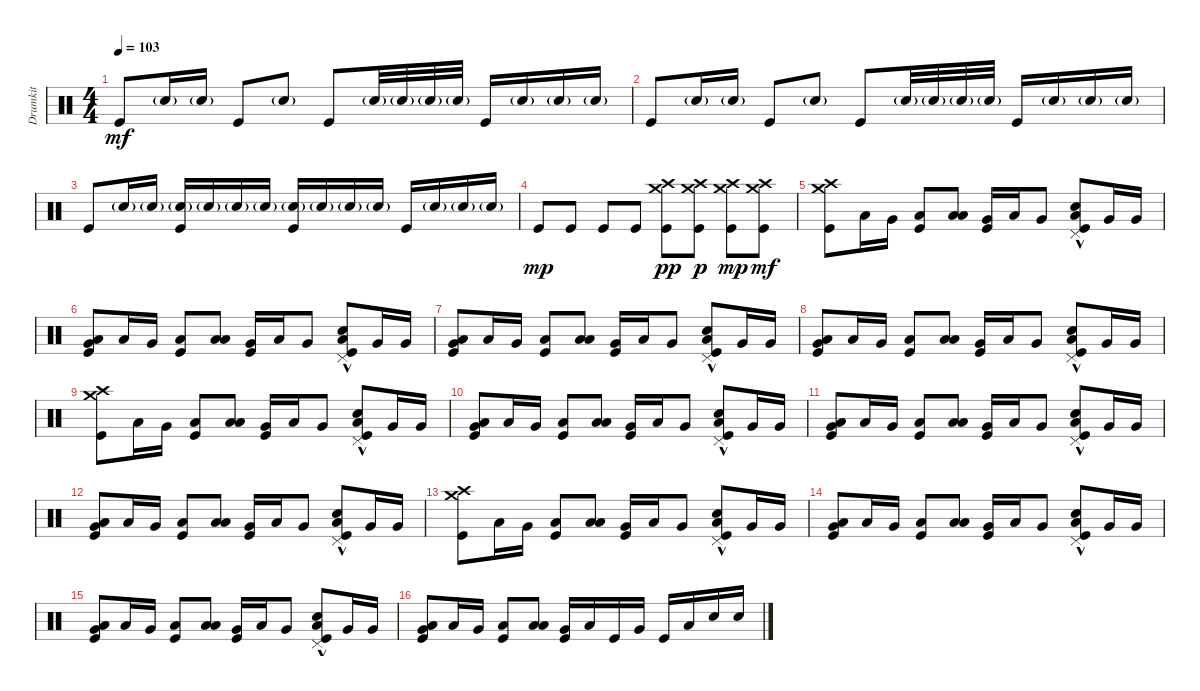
\track ("Drumkit" "Drumkit") {instrument percussion}
\staff {score}
\articulation defaults
\ts (4 4)
\tempo 103
\clef neutral
\ks c "Kick (hit)".8{dy mf} "Snare (hit) 2"{g}.16 "Snare (hit) 2"{g}.16 "Kick (hit)".8 "Snare (hit) 2"{g}.8 "Kick (hit)".8 "Snare (hit) 2"{g}.32 "Snare (hit) 2"{g}.32 "Snare (hit) 2"{g}.32 "Snare (hit) 2"{g}.32 "Kick (hit)".16 "Snare (hit) 2"{g}.16 "Snare (hit) 2"{g}.16 "Snare (hit) 2"{g}.16
|
"Kick (hit)".8 "Snare (hit) 2"{g}.16 "Snare (hit) 2"{g}.16 "Kick (hit)".8 "Snare (hit) 2"{g}.8 "Kick (hit)".8 "Snare (hit) 2"{g}.32 "Snare (hit) 2"{g}.32 "Snare (hit) 2"{g}.32 "Snare (hit) 2"{g}.32 "Kick (hit)".16 "Snare (hit) 2"{g}.16 "Snare (hit) 2"{g}.16 "Snare (hit) 2"{g}.16 |
"Kick (hit)".8 "Snare (hit) 2"{g}.16 "Snare (hit) 2"{g}.16 ("Kick (hit)" "Snare (hit) 2"{g}).16 "Snare (hit) 2"{g}.16 "Snare (hit) 2"{g}.16 "Snare (hit) 2"{g}.16 ("Kick (hit)" "Snare (hit) 2"{g}).16 "Snare (hit) 2"{g}.16 "Snare (hit) 2"{g}.16 "Snare (hit) 2"{g}.16 "Kick (hit)".16 "Snare (hit) 2"{g}.16 "Snare (hit) 2"{g}.16 "Snare (hit) 2"{g}.16 |
"Kick (hit)".8{dy mp} "Kick (hit)".8 "Kick (hit)".8 "Kick (hit)".8 ("Crash high (hit)" "Crash medium (hit)" "Kick (hit)").8{dy pp} ("Crash high (hit)" "Crash medium (hit)" "Kick (hit)").8{dy p} ("Crash high (hit)" "Crash medium (hit)" "Kick (hit)").8{dy mp} ("Crash high (hit)" "Crash medium (hit)" "Kick (hit)").8{dy mf} |
("Kick (hit)" "Crash high (hit)" "Crash medium (hit)").8 "Low Tom (hit)".16 "Very Low Tom (hit)".16 ("Low Floor Tom (hit)" "Kick (hit)").8 ("Low Floor Tom (hit)" "Low Tom (hit)").8 ("Kick (hit)" "Very Low Tom (hit)").16 "Low Tom (hit)".16 "Very Low Tom (hit)".8 ("Low Floor Tom (hit)" "Kick (hit)" "Snare (hit) 2"{hac} "Pedal Hi-Hat (hit)").8 "Very Low Tom (hit)".16 "Very Low Tom (hit)".16 |
("Kick (hit)" "Very Low Tom (hit)" "Low Tom (hit)").8 "Low Tom (hit)".16 "Very Low Tom (hit)".16 ("Low Floor Tom (hit)" "Kick (hit)").8 ("Low Floor Tom (hit)" "Low Tom (hit)").8 ("Kick (hit)" "Very Low Tom (hit)").16 "Low Tom (hit)".16 "Very Low Tom (hit)".8 ("Low Floor Tom (hit)" "Kick (hit)" "Snare (hit) 2"{hac} "Pedal Hi-Hat (hit)").8 "Very Low Tom (hit)".16 "Very Low Tom (hit)".16 |
("Kick (hit)" "Very Low Tom (hit)" "Low Tom (hit)").8 "Low Tom (hit)".16 "Very Low Tom (hit)".16 ("Low Floor Tom (hit)" "Kick (hit)").8 ("Low Floor Tom (hit)" "Low Tom (hit)").8 ("Kick (hit)" "Very Low Tom (hit)").16 "Low Tom (hit)".16 "Very Low Tom (hit)".8 ("Low Floor Tom (hit)" "Kick (hit)" "Snare (hit) 2"{hac} "Pedal Hi-Hat (hit)").8 "Very Low Tom (hit)".16 "Very Low Tom (hit)".16 |
("Kick (hit)" "Very Low Tom (hit)" "Low Tom (hit)").8 "Low Tom (hit)".16 "Very Low Tom (hit)".16 ("Low Floor Tom (hit)" "Kick (hit)").8 ("Low Floor Tom (hit)" "Low Tom (hit)").8 ("Kick (hit)" "Very Low Tom (hit)").16 "Low Tom (hit)".16 "Very Low Tom (hit)".8 ("Low Floor Tom (hit)" "Kick (hit)" "Snare (hit) 2"{hac} "Pedal Hi-Hat (hit)").8 "Very Low Tom (hit)".16 "Very Low Tom (hit)".16 |
("Kick (hit)" "Crash high (hit)" "Crash medium (hit)").8 "Low Tom (hit)".16 "Very Low Tom (hit)".16 ("Low Floor Tom (hit)" "Kick (hit)").8 ("Low Floor Tom (hit)" "Low Tom (hit)").8 ("Kick (hit)" "Very Low Tom (hit)").16 "Low Tom (hit)".16 "Very Low Tom (hit)".8 ("Low Floor Tom (hit)" "Kick (hit)" "Snare (hit) 2"{hac} "Pedal Hi-Hat (hit)").8 "Very Low Tom (hit)".16 "Very Low Tom (hit)".16 |
("Kick (hit)" "Very Low Tom (hit)" "Low Tom (hit)").8 "Low Tom (hit)".16 "Very Low Tom (hit)".16 ("Low Floor Tom (hit)" "Kick (hit)").8 ("Low Floor Tom (hit)" "Low Tom (hit)").8 ("Kick (hit)" "Very Low Tom (hit)").16 "Low Tom (hit)".16 "Very Low Tom (hit)".8 ("Low Floor Tom (hit)" "Kick (hit)" "Snare (hit) 2"{hac} "Pedal Hi-Hat (hit)").8 "Very Low Tom (hit)".16 "Very Low Tom (hit)".16 |
("Kick (hit)" "Very Low Tom (hit)" "Low Tom (hit)").8 "Low Tom (hit)".16 "Very Low Tom (hit)".16 ("Low Floor Tom (hit)" "Kick (hit)").8 ("Low Floor Tom (hit)" "Low Tom (hit)").8 ("Kick (hit)" "Very Low Tom (hit)").16 "Low Tom (hit)".16 "Very Low Tom (hit)".8 ("Low Floor Tom (hit)" "Kick (hit)" "Snare (hit) 2"{hac} "Pedal Hi-Hat (hit)").8 "Very Low Tom (hit)".16 "Very Low Tom (hit)".16 |
("Kick (hit)" "Very Low Tom (hit)" "Low Tom (hit)").8 "Low Tom (hit)".16 "Very Low Tom (hit)".16 ("Low Floor Tom (hit)" "Kick (hit)").8 ("Low Floor Tom (hit)" "Low Tom (hit)").8 ("Kick (hit)" "Very Low Tom (hit)").16 "Low Tom (hit)".16 "Very Low Tom (hit)".8 ("Low Floor Tom (hit)" "Kick (hit)" "Snare (hit) 2"{hac} "Pedal Hi-Hat (hit)").8 "Very Low Tom (hit)".16 "Very Low Tom (hit)".16 |
("Kick (hit)" "Crash high (hit)" "Crash medium (hit)").8 "Low Tom (hit)".16 "Very Low Tom (hit)".16 ("Low Floor Tom (hit)" "Kick (hit)").8 ("Low Floor Tom (hit)" "Low Tom (hit)").8 ("Kick (hit)" "Very Low Tom (hit)").16 "Low Tom (hit)".16 "Very Low Tom (hit)".8 ("Low Floor Tom (hit)" "Kick (hit)" "Snare (hit) 2"{hac} "Pedal Hi-Hat (hit)").8 "Very Low Tom (hit)".16 "Very Low Tom (hit)".16 |
("Kick (hit)" "Very Low Tom (hit)" "Low Tom (hit)").8 "Low Tom (hit)".16 "Very Low Tom (hit)".16 ("Low Floor Tom (hit)" "Kick (hit)").8 ("Low Floor Tom (hit)" "Low Tom (hit)").8 ("Kick (hit)" "Very Low Tom (hit)").16 "Low Tom (hit)".16 "Very Low Tom (hit)".8 ("Low Floor Tom (hit)" "Kick (hit)" "Snare (hit) 2"{hac} "Pedal Hi-Hat (hit)").8 "Very Low Tom (hit)".16 "Very Low Tom (hit)".16 |
("Kick (hit)" "Very Low Tom (hit)" "Low Tom (hit)").8 "Low Tom (hit)".16 "Very Low Tom (hit)".16 ("Low Floor Tom (hit)" "Kick (hit)").8 ("Low Floor Tom (hit)" "Low Tom (hit)").8 ("Kick (hit)" "Very Low Tom (hit)").16 "Low Tom (hit)".16 "Very Low Tom (hit)".8 ("Low Floor Tom (hit)" "Kick (hit)" "Snare (hit) 2"{hac} "Pedal Hi-Hat (hit)").8 "Very Low Tom (hit)".16 "Very Low Tom (hit)".16 |
("Kick (hit)" "Very Low Tom (hit)" "Low Tom (hit)").8 "Low Tom (hit)".16 "Very Low Tom (hit)".16 ("Low Floor Tom (hit)" "Kick (hit)").8 ("Low Floor Tom (hit)" "Low Tom (hit)").8 ("Kick (hit)" "Very Low Tom (hit)").16 "Low Tom (hit)".16 "Kick (hit)".16 "Very Low Tom (hit)".16 "Kick (hit)".16 "Low Floor Tom (hit)".16 "Snare (hit) 2".16 "Snare (hit) 2".16
